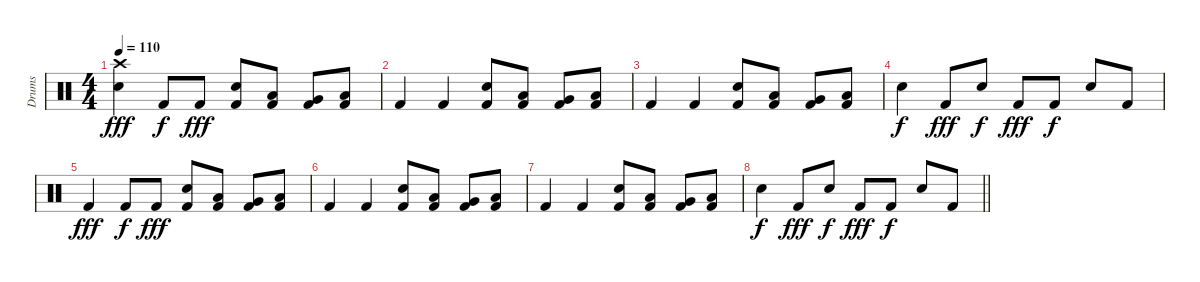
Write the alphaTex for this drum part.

\track ("Drums" "Drums") {instrument percussion}
\staff {score}
\articulation defaults
\ts (4 4)
\tempo 110
\clef neutral
\ks c
("Crash high (hit)" "Electric Snare (hit)").4{dy fff} "Kick (hit) 2".8{dy f} "Kick (hit) 2".8{dy fff} ("Electric Snare (hit)" "Kick (hit) 2").8 ("Low Tom (hit)" "Kick (hit) 2").8 ("Very Low Tom (hit)" "Kick (hit) 2").8 ("Low Tom (hit)" "Kick (hit) 2").8 |
"Kick (hit) 2".4 "Kick (hit) 2".4 ("Electric Snare (hit)" "Kick (hit) 2").8 ("Low Tom (hit)" "Kick (hit) 2").8 ("Very Low Tom (hit)" "Kick (hit) 2").8 ("Low Tom (hit)" "Kick (hit) 2").8 |
"Kick (hit) 2".4{volume 0} "Kick (hit) 2".4 ("Electric Snare (hit)" "Kick (hit) 2").8 ("Low Tom (hit)" "Kick (hit) 2").8 ("Very Low Tom (hit)" "Kick (hit) 2").8 ("Low Tom (hit)" "Kick (hit) 2").8 |
"Electric Snare (hit)".4{dy f} "Kick (hit) 2".8{dy fff} "Electric Snare (hit)".8{dy f} "Kick (hit) 2".8{dy fff} "Kick (hit) 2".8{dy f} "Electric Snare (hit)".8 "Kick (hit) 2".8 |
"Kick (hit) 2".4{dy fff} "Kick (hit) 2".8{dy f} "Kick (hit) 2".8{dy fff} ("Electric Snare (hit)" "Kick (hit) 2").8 ("Low Tom (hit)" "Kick (hit) 2").8 ("Very Low Tom (hit)" "Kick (hit) 2").8 ("Low Tom (hit)" "Kick (hit) 2").8 |
"Kick (hit) 2".4 "Kick (hit) 2".4 ("Electric Snare (hit)" "Kick (hit) 2").8 ("Low Tom (hit)" "Kick (hit) 2").8 ("Very Low Tom (hit)" "Kick (hit) 2").8 ("Low Tom (hit)" "Kick (hit) 2").8 |
"Kick (hit) 2".4 "Kick (hit) 2".4 ("Electric Snare (hit)" "Kick (hit) 2").8 ("Low Tom (hit)" "Kick (hit) 2").8 ("Very Low Tom (hit)" "Kick (hit) 2").8 ("Low Tom (hit)" "Kick (hit) 2").8 |
\barLineRight lightlight "Electric Snare (hit)".4{dy f} "Kick (hit) 2".8{dy fff} "Electric Snare (hit)".8{dy f} "Kick (hit) 2".8{dy fff} "Kick (hit) 2".8{dy f} "Electric Snare (hit)".8 "Kick (hit) 2".8
